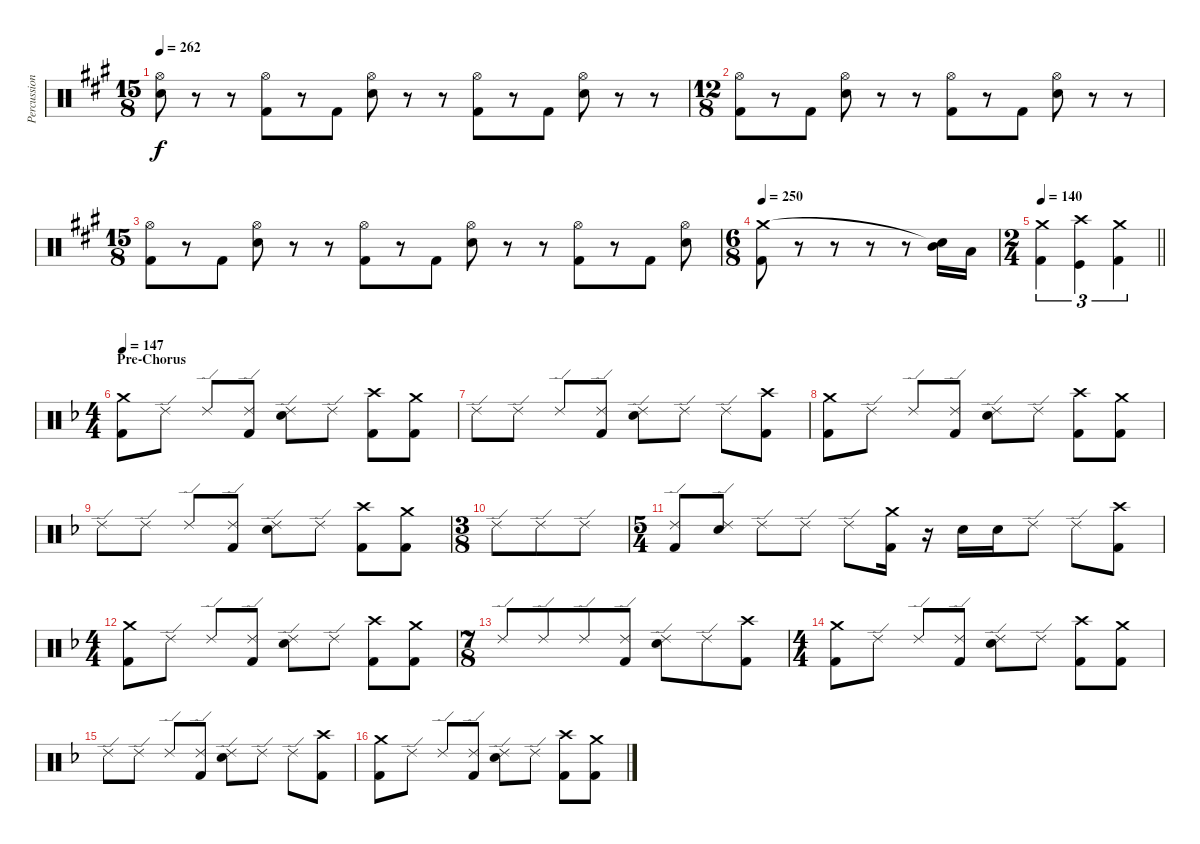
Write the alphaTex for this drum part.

\track ("Percussion" "Percussion") {instrument percussion}
\staff {score}
\articulation defaults
\ts (15 8)
\tempo 262
\clef neutral
\ks a
("Hi-Hat (open)" "Electric Snare (hit)").8{dy f} r.8 r.8 ("Hi-Hat (open)" "Kick (hit) 2").8 r.8 "Kick (hit) 2".8 ("Hi-Hat (open)" "Electric Snare (hit)").8 r.8 r.8 ("Hi-Hat (open)" "Kick (hit) 2").8 r.8 "Kick (hit) 2".8 ("Hi-Hat (open)" "Electric Snare (hit)").8 r.8 r.8 |
\ts (12 8)
("Hi-Hat (open)" "Kick (hit) 2").8 r.8 "Kick (hit) 2".8 ("Hi-Hat (open)" "Electric Snare (hit)").8 r.8 r.8 ("Hi-Hat (open)" "Kick (hit) 2").8 r.8 "Kick (hit) 2".8 ("Hi-Hat (open)" "Electric Snare (hit)").8 r.8 r.8 |
\ts (15 8)
("Hi-Hat (open)" "Kick (hit) 2").8 r.8 "Kick (hit) 2".8 ("Hi-Hat (open)" "Electric Snare (hit)").8 r.8 r.8 ("Hi-Hat (open)" "Kick (hit) 2").8 r.8 "Kick (hit) 2".8 ("Hi-Hat (open)" "Electric Snare (hit)").8 r.8 r.8 ("Hi-Hat (open)" "Kick (hit) 2").8 r.8 "Kick (hit) 2".8 ("Hi-Hat (open)" "Electric Snare (hit)").8 |
\ts (6 8)
\tempo 250
("Crash medium (hit)" "Kick (hit) 2").8 r.8 r.8 r.8 r.8 ("Snare (hit)"{t} "Mid Tom (hit)").16 "Low Tom (hit)".16 |
\ts (2 4)
\tempo 140
\barLineRight lightlight
("Crash medium (hit)" "Kick (hit) 2").4{tu (3 2)} ("Crash high (hit)" "Kick (hit)").4{tu (3 2)} ("Crash medium (hit)" "Kick (hit) 2").4{tu (3 2)} |
\ts (4 4)
\section ("" "Pre-Chorus")
\tempo 147
\ks f
("Crash medium (hit)" "Kick (hit) 2").8 "Ride (edge) 2".8 "Ride (edge) 2".8 ("Ride (edge) 2" "Kick (hit) 2").8 ("Ride (edge) 2" "Electric Snare (hit)").8 "Ride (edge) 2".8 ("Crash high (hit)" "Kick (hit) 2").8 ("Crash medium (hit)" "Kick (hit) 2").8 |
"Ride (edge) 2".8 "Ride (edge) 2".8 "Ride (edge) 2".8 ("Ride (edge) 2" "Kick (hit) 2").8 ("Ride (edge) 2" "Electric Snare (hit)").8 "Ride (edge) 2".8 "Ride (edge) 2".8 ("Crash high (hit)" "Kick (hit) 2").8 |
("Crash medium (hit)" "Kick (hit) 2").8 "Ride (edge) 2".8 "Ride (edge) 2".8 ("Ride (edge) 2" "Kick (hit) 2").8 ("Ride (edge) 2" "Electric Snare (hit)").8 "Ride (edge) 2".8 ("Crash high (hit)" "Kick (hit) 2").8 ("Crash medium (hit)" "Kick (hit) 2").8 |
"Ride (edge) 2".8 "Ride (edge) 2".8 "Ride (edge) 2".8 ("Ride (edge) 2" "Kick (hit) 2").8 ("Ride (edge) 2" "Electric Snare (hit)").8 "Ride (edge) 2".8 ("Crash high (hit)" "Kick (hit) 2").8 ("Crash medium (hit)" "Kick (hit) 2").8 |
\ts (3 8)
"Ride (edge) 2".8 "Ride (edge) 2".8 "Ride (edge) 2".8 |
\ts (5 4)
("Ride (edge) 2" "Kick (hit) 2").8 ("Ride (edge) 2" "Electric Snare (hit)").8 "Ride (edge) 2".8 "Ride (edge) 2".8 "Ride (edge) 2".8 ("Crash medium (hit)" "Kick (hit) 2").16 r.16 "Electric Snare (hit)".16 "Electric Snare (hit)".16 "Ride (edge) 2".8 "Ride (edge) 2".8 ("Crash high (hit)" "Kick (hit) 2").8 |
\ts (4 4)
("Crash medium (hit)" "Kick (hit) 2").8 "Ride (edge) 2".8 "Ride (edge) 2".8 ("Ride (edge) 2" "Kick (hit) 2").8 ("Ride (edge) 2" "Electric Snare (hit)").8 "Ride (edge) 2".8 ("Crash high (hit)" "Kick (hit) 2").8 ("Crash medium (hit)" "Kick (hit) 2").8 |
\ts (7 8)
"Ride (edge) 2".8 "Ride (edge) 2".8 "Ride (edge) 2".8 ("Ride (edge) 2" "Kick (hit) 2").8 ("Ride (edge) 2" "Electric Snare (hit)").8 "Ride (edge) 2".8 ("Crash high (hit)" "Kick (hit) 2").8 |
\ts (4 4)
("Crash medium (hit)" "Kick (hit) 2").8 "Ride (edge) 2".8 "Ride (edge) 2".8 ("Ride (edge) 2" "Kick (hit) 2").8 ("Ride (edge) 2" "Electric Snare (hit)").8 "Ride (edge) 2".8 ("Crash high (hit)" "Kick (hit) 2").8 ("Crash medium (hit)" "Kick (hit) 2").8 |
"Ride (edge) 2".8 "Ride (edge) 2".8 "Ride (edge) 2".8 ("Ride (edge) 2" "Kick (hit) 2").8 ("Ride (edge) 2" "Electric Snare (hit)").8 "Ride (edge) 2".8 "Ride (edge) 2".8 ("Crash high (hit)" "Kick (hit) 2").8 |
("Crash medium (hit)" "Kick (hit) 2").8 "Ride (edge) 2".8 "Ride (edge) 2".8 ("Ride (edge) 2" "Kick (hit) 2").8 ("Ride (edge) 2" "Electric Snare (hit)").8 "Ride (edge) 2".8 ("Crash high (hit)" "Kick (hit) 2").8 ("Crash medium (hit)" "Kick (hit) 2").8
